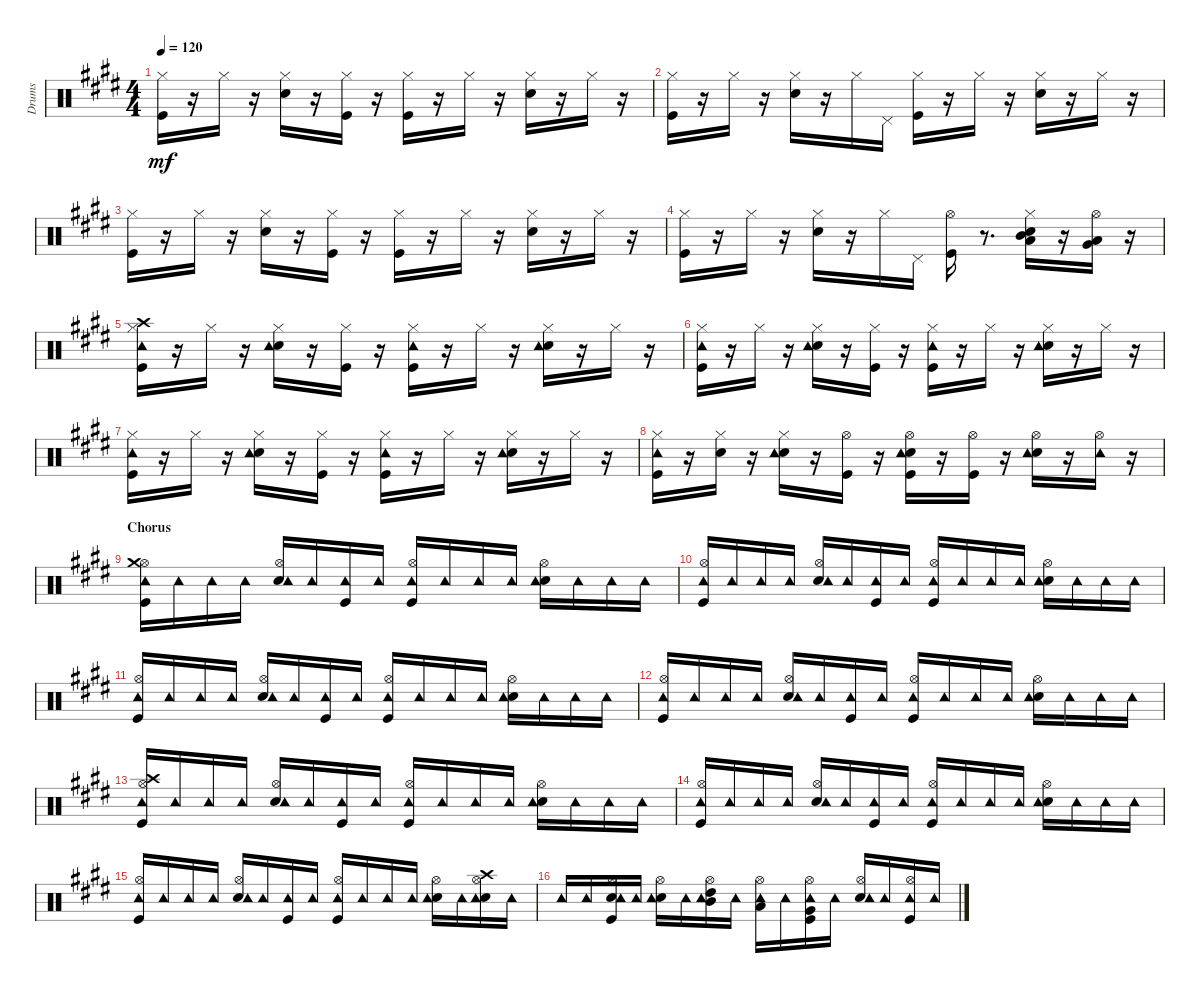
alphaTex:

\track ("Drums" "Drums") {instrument percussion}
\staff {score}
\articulation defaults
\ts (4 4)
\tempo 120
\clef neutral
\ks c#minor
("Kick (hit)" "Hi-Hat (closed)").16{dy mf} r.16 "Hi-Hat (closed)".16 r.16 ("Snare (hit) 2" "Hi-Hat (closed)").16 r.16 ("Kick (hit)" "Hi-Hat (closed)").16 r.16 ("Kick (hit)" "Hi-Hat (closed)").16 r.16 "Hi-Hat (closed)".16 r.16 ("Snare (hit) 2" "Hi-Hat (closed)").16 r.16 "Hi-Hat (closed)".16 r.16 |
("Kick (hit)" "Hi-Hat (closed)").16 r.16 "Hi-Hat (closed)".16 r.16 ("Snare (hit) 2" "Hi-Hat (closed)").16 r.16 "Hi-Hat (closed)".16 "Pedal Hi-Hat (hit)".16 ("Kick (hit)" "Hi-Hat (closed)").16 r.16 "Hi-Hat (closed)".16 r.16 ("Snare (hit) 2" "Hi-Hat (closed)").16 r.16 "Hi-Hat (closed)".16 r.16 |
("Kick (hit)" "Hi-Hat (closed)").16 r.16 "Hi-Hat (closed)".16 r.16 ("Snare (hit) 2" "Hi-Hat (closed)").16 r.16 ("Kick (hit)" "Hi-Hat (closed)").16 r.16 ("Kick (hit)" "Hi-Hat (closed)").16 r.16 "Hi-Hat (closed)".16 r.16 ("Snare (hit) 2" "Hi-Hat (closed)").16 r.16 "Hi-Hat (closed)".16 r.16 |
("Kick (hit)" "Hi-Hat (closed)").16 r.16 "Hi-Hat (closed)".16 r.16 ("Snare (hit) 2" "Hi-Hat (closed)").16 r.16 "Hi-Hat (closed)".16 "Pedal Hi-Hat (hit)".16 ("Kick (hit)" "Hi-Hat (open)").16 r.8{d} ("Snare (hit) 2" "Hi-Hat (closed)" "Low Tom (hit)" "Mid Tom (hit)").16 r.16 ("Very Low Tom (hit)" "Low Tom (hit)" "Hi-Hat (open)").16 r.16 |
("Kick (hit)" "Hi-Hat (closed)" "Crash high (hit)" "Tambourine (hit)").16 r.16 "Hi-Hat (closed)".16 r.16 ("Snare (hit) 2" "Hi-Hat (closed)" "Tambourine (hit)").16 r.16 ("Kick (hit)" "Hi-Hat (closed)").16 r.16 ("Kick (hit)" "Hi-Hat (closed)" "Tambourine (hit)").16 r.16 "Hi-Hat (closed)".16 r.16 ("Snare (hit) 2" "Hi-Hat (closed)" "Tambourine (hit)").16 r.16 "Hi-Hat (closed)".16 r.16 |
("Kick (hit)" "Hi-Hat (closed)" "Tambourine (hit)").16 r.16 "Hi-Hat (closed)".16 r.16 ("Snare (hit) 2" "Hi-Hat (closed)" "Tambourine (hit)").16 r.16 ("Kick (hit)" "Hi-Hat (closed)").16 r.16 ("Kick (hit)" "Hi-Hat (closed)" "Tambourine (hit)").16 r.16 "Hi-Hat (closed)".16 r.16 ("Snare (hit) 2" "Hi-Hat (closed)" "Tambourine (hit)").16 r.16 "Hi-Hat (closed)".16 r.16 |
("Kick (hit)" "Hi-Hat (closed)" "Tambourine (hit)").16 r.16 "Hi-Hat (closed)".16 r.16 ("Snare (hit) 2" "Hi-Hat (closed)" "Tambourine (hit)").16 r.16 ("Kick (hit)" "Hi-Hat (closed)").16 r.16 ("Kick (hit)" "Hi-Hat (closed)" "Tambourine (hit)").16 r.16 "Hi-Hat (closed)".16 r.16 ("Snare (hit) 2" "Hi-Hat (closed)" "Tambourine (hit)").16 r.16 "Hi-Hat (closed)".16 r.16 |
("Kick (hit)" "Hi-Hat (closed)" "Tambourine (hit)").16 r.16 ("Snare (hit) 2" "Hi-Hat (closed)").16 r.16 ("Snare (hit) 2" "Hi-Hat (closed)" "Tambourine (hit)").16 r.16 ("Kick (hit)" "Hi-Hat (open)").16 r.16 ("Kick (hit)" "Snare (hit) 2" "Hi-Hat (open)" "Tambourine (hit)").16 r.16 ("Kick (hit)" "Hi-Hat (open)").16 r.16 ("Snare (hit) 2" "Hi-Hat (open)" "Tambourine (hit)").16 r.16 ("Hi-Hat (open)" "Tambourine (hit)").16 r.16 |
\section ("" "Chorus")
("Kick (hit)" "Hi-Hat (open)" "Tambourine (hit)" "Crash medium (hit)").16 "Tambourine (hit)".16 "Tambourine (hit)".16 "Tambourine (hit)".16 ("Snare (hit) 2" "Hi-Hat (open)" "Tambourine (hit)").16 "Tambourine (hit)".16 ("Kick (hit)" "Tambourine (hit)").16 "Tambourine (hit)".16 ("Kick (hit)" "Hi-Hat (open)" "Tambourine (hit)").16 "Tambourine (hit)".16 "Tambourine (hit)".16 "Tambourine (hit)".16 ("Snare (hit) 2" "Hi-Hat (open)" "Tambourine (hit)").16 "Tambourine (hit)".16 "Tambourine (hit)".16 "Tambourine (hit)".16 |
("Kick (hit)" "Hi-Hat (open)" "Tambourine (hit)").16 "Tambourine (hit)".16 "Tambourine (hit)".16 "Tambourine (hit)".16 ("Snare (hit) 2" "Hi-Hat (open)" "Tambourine (hit)").16 "Tambourine (hit)".16 ("Kick (hit)" "Tambourine (hit)").16 "Tambourine (hit)".16 ("Kick (hit)" "Hi-Hat (open)" "Tambourine (hit)").16 "Tambourine (hit)".16 "Tambourine (hit)".16 "Tambourine (hit)".16 ("Snare (hit) 2" "Hi-Hat (open)" "Tambourine (hit)").16 "Tambourine (hit)".16 "Tambourine (hit)".16 "Tambourine (hit)".16 |
("Kick (hit)" "Hi-Hat (open)" "Tambourine (hit)").16 "Tambourine (hit)".16 "Tambourine (hit)".16 "Tambourine (hit)".16 ("Snare (hit) 2" "Hi-Hat (open)" "Tambourine (hit)").16 "Tambourine (hit)".16 ("Kick (hit)" "Tambourine (hit)").16 "Tambourine (hit)".16 ("Kick (hit)" "Hi-Hat (open)" "Tambourine (hit)").16 "Tambourine (hit)".16 "Tambourine (hit)".16 "Tambourine (hit)".16 ("Snare (hit) 2" "Hi-Hat (open)" "Tambourine (hit)").16 "Tambourine (hit)".16 "Tambourine (hit)".16 "Tambourine (hit)".16 |
("Kick (hit)" "Hi-Hat (open)" "Tambourine (hit)").16 "Tambourine (hit)".16 "Tambourine (hit)".16 "Tambourine (hit)".16 ("Snare (hit) 2" "Hi-Hat (open)" "Tambourine (hit)").16 "Tambourine (hit)".16 ("Kick (hit)" "Tambourine (hit)").16 "Tambourine (hit)".16 ("Kick (hit)" "Hi-Hat (open)" "Tambourine (hit)").16 "Tambourine (hit)".16 "Tambourine (hit)".16 "Tambourine (hit)".16 ("Snare (hit) 2" "Hi-Hat (open)" "Tambourine (hit)").16 "Tambourine (hit)".16 "Tambourine (hit)".16 "Tambourine (hit)".16 |
("Kick (hit)" "Hi-Hat (open)" "Crash high (hit)" "Tambourine (hit)").16 "Tambourine (hit)".16 "Tambourine (hit)".16 "Tambourine (hit)".16 ("Snare (hit) 2" "Hi-Hat (open)" "Tambourine (hit)").16 "Tambourine (hit)".16 ("Kick (hit)" "Tambourine (hit)").16 "Tambourine (hit)".16 ("Kick (hit)" "Hi-Hat (open)" "Tambourine (hit)").16 "Tambourine (hit)".16 "Tambourine (hit)".16 "Tambourine (hit)".16 ("Snare (hit) 2" "Hi-Hat (open)" "Tambourine (hit)").16 "Tambourine (hit)".16 "Tambourine (hit)".16 "Tambourine (hit)".16 |
("Kick (hit)" "Hi-Hat (open)" "Tambourine (hit)").16 "Tambourine (hit)".16 "Tambourine (hit)".16 "Tambourine (hit)".16 ("Snare (hit) 2" "Hi-Hat (open)" "Tambourine (hit)").16 "Tambourine (hit)".16 ("Kick (hit)" "Tambourine (hit)").16 "Tambourine (hit)".16 ("Kick (hit)" "Hi-Hat (open)" "Tambourine (hit)").16 "Tambourine (hit)".16 "Tambourine (hit)".16 "Tambourine (hit)".16 ("Snare (hit) 2" "Hi-Hat (open)" "Tambourine (hit)").16 "Tambourine (hit)".16 "Tambourine (hit)".16 "Tambourine (hit)".16 |
("Kick (hit)" "Hi-Hat (open)" "Tambourine (hit)").16 "Tambourine (hit)".16 "Tambourine (hit)".16 "Tambourine (hit)".16 ("Snare (hit) 2" "Hi-Hat (open)" "Tambourine (hit)").16 "Tambourine (hit)".16 ("Kick (hit)" "Tambourine (hit)").16 "Tambourine (hit)".16 ("Kick (hit)" "Hi-Hat (open)" "Tambourine (hit)").16 "Tambourine (hit)".16 "Tambourine (hit)".16 "Tambourine (hit)".16 ("Snare (hit) 2" "Hi-Hat (open)" "Tambourine (hit)").16 "Tambourine (hit)".16 ("Snare (hit) 2" "Hi-Hat (open)" "Crash high (hit)" "Tambourine (hit)").16 "Tambourine (hit)".16 |
"Tambourine (hit)".16 "Tambourine (hit)".16 ("Kick (hit)" "Snare (hit) 2" "Hi-Hat (open)" "Tambourine (hit)").16 "Tambourine (hit)".16 ("Snare (hit) 2" "Hi-Hat (open)" "Tambourine (hit)").16 "Tambourine (hit)".16 ("Hi-Hat (open)" "Mid Tom (hit)" "High Tom (hit)" "Tambourine (hit)").16 "Tambourine (hit)".16 ("Low Tom (hit)" "Hi-Hat (open)" "Tambourine (hit)").16 "Tambourine (hit)".16 ("Kick (hit)" "Very Low Tom (hit)" "Hi-Hat (open)" "Tambourine (hit)").16 "Tambourine (hit)".16 ("Snare (hit) 2" "Hi-Hat (open)" "Tambourine (hit)").16 "Tambourine (hit)".16 ("Kick (hit)" "Hi-Hat (open)" "Tambourine (hit)").16 "Tambourine (hit)".16
